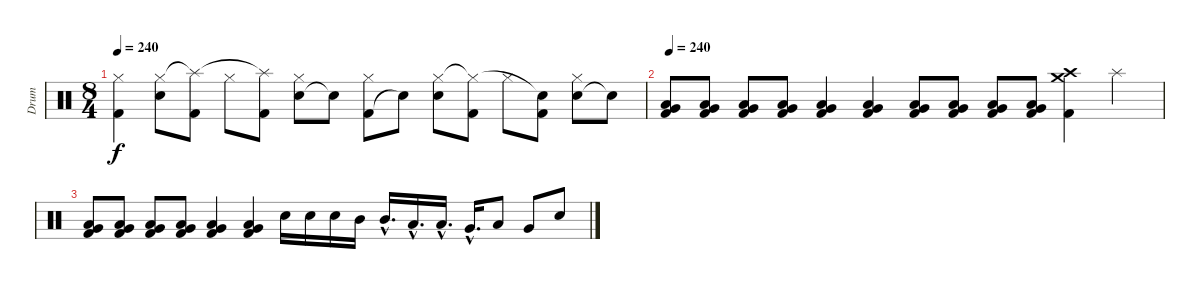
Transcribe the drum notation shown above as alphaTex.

\track ("Drum" "Drum") {instrument percussion}
\staff {score}
\articulation defaults
\ts (8 4)
\tempo 240
\clef neutral
\ks c
("Kick (hit) 2" "Hi-Hat (closed)").4{dy f} ("Electric Snare (hit)" "Hi-Hat (closed)").8 ("Kick (hit) 2" "Splash (hit)"{t}).8 "Hi-Hat (closed)".8 ("Kick (hit) 2" "Splash (hit)"{t}).8 ("Electric Snare (hit)" "Hi-Hat (closed)").8 "Snare (hit)"{t}.8 ("Kick (hit) 2" "Hi-Hat (closed)").8 "Snare (hit)"{t}.8 ("Electric Snare (hit)" "Hi-Hat (closed)").8 ("Kick (hit) 2" "Hi-Hat (closed)"{t}).8 "Hi-Hat (closed)".8 ("Kick (hit) 2" "Snare (hit)"{t}).8 ("Electric Snare (hit)" "Hi-Hat (closed)").8 "Snare (hit)"{t}.8 |
\tempo 240
("Kick (hit) 2" "Low Floor Tom (hit)" "Very Low Tom (hit)").8 ("Kick (hit) 2" "Low Floor Tom (hit)" "Very Low Tom (hit)").8 ("Kick (hit) 2" "Low Floor Tom (hit)" "Very Low Tom (hit)").8 ("Kick (hit) 2" "Low Floor Tom (hit)" "Very Low Tom (hit)").8 ("Kick (hit) 2" "Low Floor Tom (hit)" "Very Low Tom (hit)").4 ("Kick (hit) 2" "Low Floor Tom (hit)" "Very Low Tom (hit)").4 ("Kick (hit) 2" "Low Floor Tom (hit)" "Very Low Tom (hit)").8 ("Kick (hit) 2" "Low Floor Tom (hit)" "Very Low Tom (hit)").8 ("Kick (hit) 2" "Low Floor Tom (hit)" "Very Low Tom (hit)").8 ("Kick (hit) 2" "Low Floor Tom (hit)" "Very Low Tom (hit)").8 ("Kick (hit) 2" "Crash high (hit)" "Crash medium (hit)").4 "Splash (hit)".4 |
("Kick (hit) 2" "Low Floor Tom (hit)" "Very Low Tom (hit)").8 ("Kick (hit) 2" "Low Floor Tom (hit)" "Very Low Tom (hit)").8 ("Kick (hit) 2" "Low Floor Tom (hit)" "Very Low Tom (hit)").8 ("Kick (hit) 2" "Low Floor Tom (hit)" "Very Low Tom (hit)").8 ("Kick (hit) 2" "Low Floor Tom (hit)" "Very Low Tom (hit)").4 ("Kick (hit) 2" "Low Floor Tom (hit)" "Very Low Tom (hit)").4 "Electric Snare (hit)".16 "Electric Snare (hit)".16 "Electric Snare (hit)".16 "Mid Tom (hit)".16 "Mid Tom (hit)"{hac}.16{d} "Low Tom (hit)"{hac}.16{d} "Low Tom (hit)"{hac}.16{d} "Very Low Tom (hit)"{hac}.16{d} "Low Floor Tom (hit)".8 "Very Low Tom (hit)".8 "Electric Snare (hit)".8
